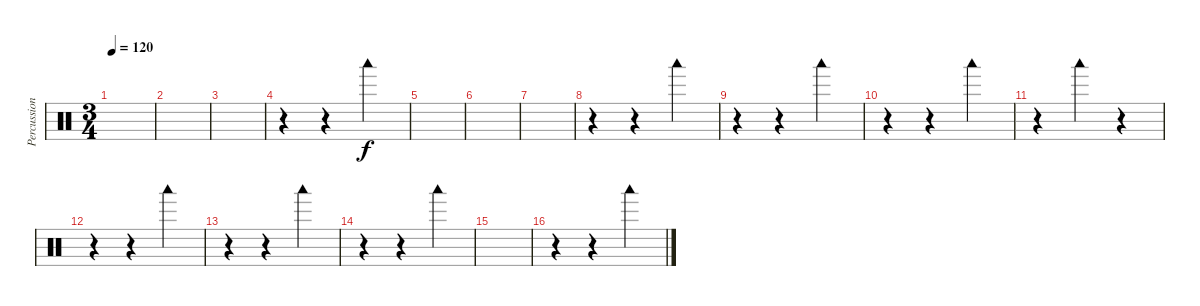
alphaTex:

\track ("Percussion" "Percussion") {instrument percussion}
\staff {score}
\articulation defaults
\ts (3 4)
\tempo 120
\clef neutral
\ks c
|
|
|
r.4 r.4 "Woodblock low (hit)".4 |
|
|
|
r.4 r.4 "Woodblock low (hit)".4 |
r.4 r.4 "Woodblock low (hit)".4 |
r.4 r.4 "Woodblock low (hit)".4 |
r.4 "Woodblock low (hit)".4 r.4 |
r.4 r.4 "Woodblock low (hit)".4 |
r.4 r.4 "Woodblock low (hit)".4 |
r.4 r.4 "Woodblock low (hit)".4 |
|
r.4 r.4 "Woodblock low (hit)".4
